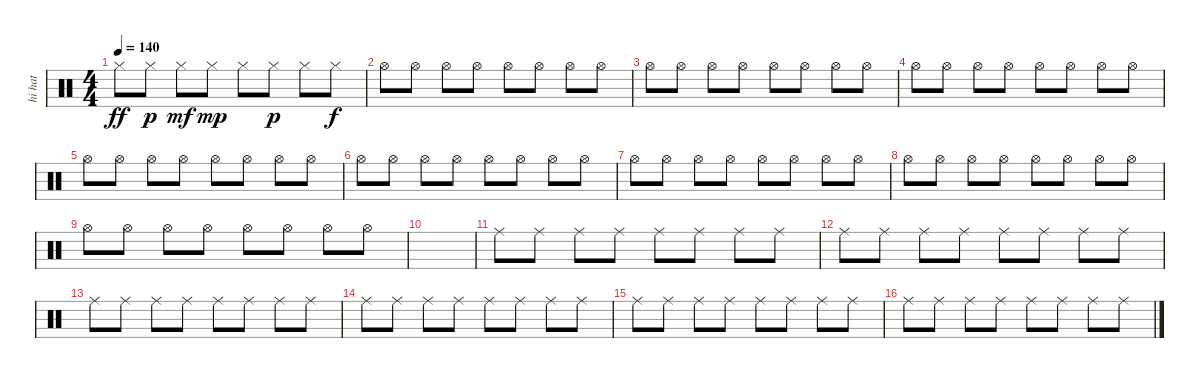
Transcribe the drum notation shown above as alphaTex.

\track ("hi hat" "hi hat") {instrument percussion}
\staff {score}
\articulation defaults
\ts (4 4)
\tempo 140
\clef neutral
\ks c "Hi-Hat (closed)".8{dy ff} "Hi-Hat (closed)".8{dy p} "Hi-Hat (closed)".8{dy mf} "Hi-Hat (closed)".8{dy mp} "Hi-Hat (closed)".8 "Hi-Hat (closed)".8{dy p} "Hi-Hat (closed)".8 "Hi-Hat (closed)".8{dy f}
|
"Hi-Hat (open)".8 "Hi-Hat (open)".8 "Hi-Hat (open)".8 "Hi-Hat (open)".8 "Hi-Hat (open)".8 "Hi-Hat (open)".8 "Hi-Hat (open)".8 "Hi-Hat (open)".8 |
"Hi-Hat (open)".8 "Hi-Hat (open)".8 "Hi-Hat (open)".8 "Hi-Hat (open)".8 "Hi-Hat (open)".8 "Hi-Hat (open)".8 "Hi-Hat (open)".8 "Hi-Hat (open)".8 |
"Hi-Hat (open)".8 "Hi-Hat (open)".8 "Hi-Hat (open)".8 "Hi-Hat (open)".8 "Hi-Hat (open)".8 "Hi-Hat (open)".8 "Hi-Hat (open)".8 "Hi-Hat (open)".8 |
"Hi-Hat (open)".8 "Hi-Hat (open)".8 "Hi-Hat (open)".8 "Hi-Hat (open)".8 "Hi-Hat (open)".8 "Hi-Hat (open)".8 "Hi-Hat (open)".8 "Hi-Hat (open)".8 |
"Hi-Hat (open)".8 "Hi-Hat (open)".8 "Hi-Hat (open)".8 "Hi-Hat (open)".8 "Hi-Hat (open)".8 "Hi-Hat (open)".8 "Hi-Hat (open)".8 "Hi-Hat (open)".8 |
"Hi-Hat (open)".8 "Hi-Hat (open)".8 "Hi-Hat (open)".8 "Hi-Hat (open)".8 "Hi-Hat (open)".8 "Hi-Hat (open)".8 "Hi-Hat (open)".8 "Hi-Hat (open)".8 |
"Hi-Hat (open)".8 "Hi-Hat (open)".8 "Hi-Hat (open)".8 "Hi-Hat (open)".8 "Hi-Hat (open)".8 "Hi-Hat (open)".8 "Hi-Hat (open)".8 "Hi-Hat (open)".8 |
"Hi-Hat (open)".8 "Hi-Hat (open)".8 "Hi-Hat (open)".8 "Hi-Hat (open)".8 "Hi-Hat (open)".8 "Hi-Hat (open)".8 "Hi-Hat (open)".8 "Hi-Hat (open)".8 |
|
"Ride (middle)".8 "Ride (middle)".8 "Ride (middle)".8 "Ride (middle)".8 "Ride (middle)".8 "Ride (middle)".8 "Ride (middle)".8 "Ride (middle)".8 |
"Ride (middle)".8 "Ride (middle)".8 "Ride (middle)".8 "Ride (middle)".8 "Ride (middle)".8 "Ride (middle)".8 "Ride (middle)".8 "Ride (middle)".8 |
"Ride (middle)".8 "Ride (middle)".8 "Ride (middle)".8 "Ride (middle)".8 "Ride (middle)".8 "Ride (middle)".8 "Ride (middle)".8 "Ride (middle)".8 |
"Ride (middle)".8 "Ride (middle)".8 "Ride (middle)".8 "Ride (middle)".8 "Ride (middle)".8 "Ride (middle)".8 "Ride (middle)".8 "Ride (middle)".8 |
"Ride (middle)".8 "Ride (middle)".8 "Ride (middle)".8 "Ride (middle)".8 "Ride (middle)".8 "Ride (middle)".8 "Ride (middle)".8 "Ride (middle)".8 |
"Ride (middle)".8 "Ride (middle)".8 "Ride (middle)".8 "Ride (middle)".8 "Ride (middle)".8 "Ride (middle)".8 "Ride (middle)".8 "Ride (middle)".8
